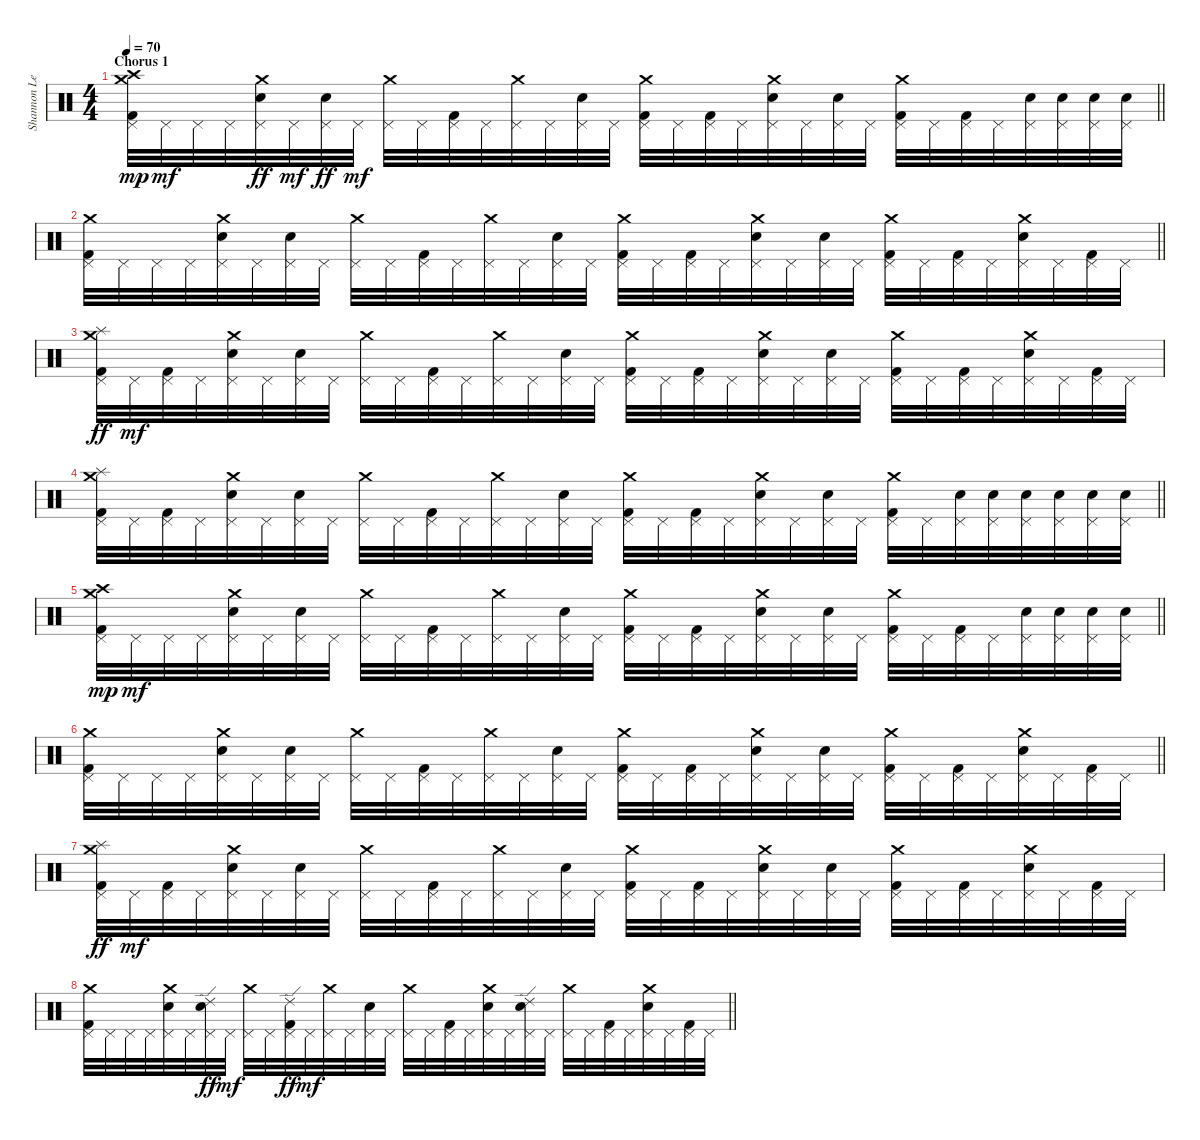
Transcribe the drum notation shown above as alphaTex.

\track ("Shannon Leto - Drums" "Shannon Le") {instrument percussion}
\staff {score}
\articulation defaults
\ts (4 4)
\section ("" "Chorus 1")
\tempo 70
\clef neutral
\barLineRight lightlight
\ks c
("Crash medium (hit)" "Pedal Hi-Hat (hit)" "Crash high (hit)" "Kick (hit) 2").32{dy mp} "Pedal Hi-Hat (hit)".32{dy mf} "Pedal Hi-Hat (hit)".32 "Pedal Hi-Hat (hit)".32 ("Crash medium (hit)" "Pedal Hi-Hat (hit)" "Electric Snare (hit)").32{dy ff} "Pedal Hi-Hat (hit)".32{dy mf} ("Pedal Hi-Hat (hit)" "Electric Snare (hit)").32{dy ff} "Pedal Hi-Hat (hit)".32{dy mf} ("Crash medium (hit)" "Pedal Hi-Hat (hit)").32 "Pedal Hi-Hat (hit)".32 ("Pedal Hi-Hat (hit)" "Kick (hit) 2").32 "Pedal Hi-Hat (hit)".32 ("Crash medium (hit)" "Pedal Hi-Hat (hit)").32 "Pedal Hi-Hat (hit)".32 ("Pedal Hi-Hat (hit)" "Electric Snare (hit)").32 "Pedal Hi-Hat (hit)".32 ("Crash medium (hit)" "Pedal Hi-Hat (hit)" "Kick (hit) 2").32 "Pedal Hi-Hat (hit)".32 ("Pedal Hi-Hat (hit)" "Kick (hit) 2").32 "Pedal Hi-Hat (hit)".32 ("Crash medium (hit)" "Pedal Hi-Hat (hit)" "Electric Snare (hit)").32 "Pedal Hi-Hat (hit)".32 ("Pedal Hi-Hat (hit)" "Electric Snare (hit)").32 "Pedal Hi-Hat (hit)".32 ("Crash medium (hit)" "Pedal Hi-Hat (hit)" "Kick (hit) 2").32 "Pedal Hi-Hat (hit)".32 ("Pedal Hi-Hat (hit)" "Kick (hit) 2").32 "Pedal Hi-Hat (hit)".32 ("Pedal Hi-Hat (hit)" "Electric Snare (hit)").32 ("Pedal Hi-Hat (hit)" "Electric Snare (hit)").32 ("Pedal Hi-Hat (hit)" "Electric Snare (hit)").32 ("Pedal Hi-Hat (hit)" "Electric Snare (hit)").32 |
\barLineRight lightlight
("Crash medium (hit)" "Pedal Hi-Hat (hit)" "Kick (hit) 2").32 "Pedal Hi-Hat (hit)".32 "Pedal Hi-Hat (hit)".32 "Pedal Hi-Hat (hit)".32 ("Crash medium (hit)" "Pedal Hi-Hat (hit)" "Electric Snare (hit)").32 "Pedal Hi-Hat (hit)".32 ("Pedal Hi-Hat (hit)" "Electric Snare (hit)").32 "Pedal Hi-Hat (hit)".32 ("Crash medium (hit)" "Pedal Hi-Hat (hit)").32 "Pedal Hi-Hat (hit)".32 ("Pedal Hi-Hat (hit)" "Kick (hit) 2").32 "Pedal Hi-Hat (hit)".32 ("Crash medium (hit)" "Pedal Hi-Hat (hit)").32 "Pedal Hi-Hat (hit)".32 ("Pedal Hi-Hat (hit)" "Electric Snare (hit)").32 "Pedal Hi-Hat (hit)".32 ("Crash medium (hit)" "Pedal Hi-Hat (hit)" "Kick (hit) 2").32 "Pedal Hi-Hat (hit)".32 ("Pedal Hi-Hat (hit)" "Kick (hit) 2").32 "Pedal Hi-Hat (hit)".32 ("Crash medium (hit)" "Pedal Hi-Hat (hit)" "Electric Snare (hit)").32 "Pedal Hi-Hat (hit)".32 ("Pedal Hi-Hat (hit)" "Electric Snare (hit)").32 "Pedal Hi-Hat (hit)".32 ("Crash medium (hit)" "Pedal Hi-Hat (hit)" "Kick (hit) 2").32 "Pedal Hi-Hat (hit)".32 ("Pedal Hi-Hat (hit)" "Kick (hit) 2").32 "Pedal Hi-Hat (hit)".32 ("Crash medium (hit)" "Pedal Hi-Hat (hit)" "Electric Snare (hit)").32 "Pedal Hi-Hat (hit)".32 ("Pedal Hi-Hat (hit)" "Kick (hit) 2").32 "Pedal Hi-Hat (hit)".32 |
("Crash medium (hit)" "Pedal Hi-Hat (hit)" "Splash (hit)" "Kick (hit) 2").32{dy ff} "Pedal Hi-Hat (hit)".32{dy mf} ("Pedal Hi-Hat (hit)" "Kick (hit) 2").32 "Pedal Hi-Hat (hit)".32 ("Crash medium (hit)" "Pedal Hi-Hat (hit)" "Electric Snare (hit)").32 "Pedal Hi-Hat (hit)".32 ("Pedal Hi-Hat (hit)" "Electric Snare (hit)").32 "Pedal Hi-Hat (hit)".32 ("Crash medium (hit)" "Pedal Hi-Hat (hit)").32 "Pedal Hi-Hat (hit)".32 ("Pedal Hi-Hat (hit)" "Kick (hit) 2").32 "Pedal Hi-Hat (hit)".32 ("Crash medium (hit)" "Pedal Hi-Hat (hit)").32 "Pedal Hi-Hat (hit)".32 ("Pedal Hi-Hat (hit)" "Electric Snare (hit)").32 "Pedal Hi-Hat (hit)".32 ("Crash medium (hit)" "Pedal Hi-Hat (hit)" "Kick (hit) 2").32 "Pedal Hi-Hat (hit)".32 ("Pedal Hi-Hat (hit)" "Kick (hit) 2").32 "Pedal Hi-Hat (hit)".32 ("Crash medium (hit)" "Pedal Hi-Hat (hit)" "Electric Snare (hit)").32 "Pedal Hi-Hat (hit)".32 ("Pedal Hi-Hat (hit)" "Electric Snare (hit)").32 "Pedal Hi-Hat (hit)".32 ("Crash medium (hit)" "Pedal Hi-Hat (hit)" "Kick (hit) 2").32 "Pedal Hi-Hat (hit)".32 ("Pedal Hi-Hat (hit)" "Kick (hit) 2").32 "Pedal Hi-Hat (hit)".32 ("Crash medium (hit)" "Pedal Hi-Hat (hit)" "Electric Snare (hit)").32 "Pedal Hi-Hat (hit)".32 ("Pedal Hi-Hat (hit)" "Kick (hit) 2").32 "Pedal Hi-Hat (hit)".32 |
\barLineRight lightlight
("Crash medium (hit)" "Pedal Hi-Hat (hit)" "Splash (hit)" "Kick (hit) 2").32 "Pedal Hi-Hat (hit)".32 ("Pedal Hi-Hat (hit)" "Kick (hit) 2").32 "Pedal Hi-Hat (hit)".32 ("Crash medium (hit)" "Pedal Hi-Hat (hit)" "Electric Snare (hit)").32 "Pedal Hi-Hat (hit)".32 ("Pedal Hi-Hat (hit)" "Electric Snare (hit)").32 "Pedal Hi-Hat (hit)".32 ("Crash medium (hit)" "Pedal Hi-Hat (hit)").32 "Pedal Hi-Hat (hit)".32 ("Pedal Hi-Hat (hit)" "Kick (hit) 2").32 "Pedal Hi-Hat (hit)".32 ("Crash medium (hit)" "Pedal Hi-Hat (hit)").32 "Pedal Hi-Hat (hit)".32 ("Pedal Hi-Hat (hit)" "Electric Snare (hit)").32 "Pedal Hi-Hat (hit)".32 ("Crash medium (hit)" "Pedal Hi-Hat (hit)" "Kick (hit) 2").32 "Pedal Hi-Hat (hit)".32 ("Pedal Hi-Hat (hit)" "Kick (hit) 2").32 "Pedal Hi-Hat (hit)".32 ("Crash medium (hit)" "Pedal Hi-Hat (hit)" "Electric Snare (hit)").32 "Pedal Hi-Hat (hit)".32 ("Pedal Hi-Hat (hit)" "Electric Snare (hit)").32 "Pedal Hi-Hat (hit)".32 ("Crash medium (hit)" "Pedal Hi-Hat (hit)" "Kick (hit) 2").32 "Pedal Hi-Hat (hit)".32 ("Pedal Hi-Hat (hit)" "Electric Snare (hit)").32 ("Pedal Hi-Hat (hit)" "Electric Snare (hit)").32 ("Pedal Hi-Hat (hit)" "Electric Snare (hit)").32 ("Pedal Hi-Hat (hit)" "Electric Snare (hit)").32 ("Pedal Hi-Hat (hit)" "Electric Snare (hit)").32 ("Pedal Hi-Hat (hit)" "Electric Snare (hit)").32 |
\barLineRight lightlight
("Crash medium (hit)" "Pedal Hi-Hat (hit)" "Crash high (hit)" "Kick (hit) 2").32{dy mp} "Pedal Hi-Hat (hit)".32{dy mf} "Pedal Hi-Hat (hit)".32 "Pedal Hi-Hat (hit)".32 ("Crash medium (hit)" "Pedal Hi-Hat (hit)" "Electric Snare (hit)").32 "Pedal Hi-Hat (hit)".32 ("Pedal Hi-Hat (hit)" "Electric Snare (hit)").32 "Pedal Hi-Hat (hit)".32 ("Crash medium (hit)" "Pedal Hi-Hat (hit)").32 "Pedal Hi-Hat (hit)".32 ("Pedal Hi-Hat (hit)" "Kick (hit) 2").32 "Pedal Hi-Hat (hit)".32 ("Crash medium (hit)" "Pedal Hi-Hat (hit)").32 "Pedal Hi-Hat (hit)".32 ("Pedal Hi-Hat (hit)" "Electric Snare (hit)").32 "Pedal Hi-Hat (hit)".32 ("Crash medium (hit)" "Pedal Hi-Hat (hit)" "Kick (hit) 2").32 "Pedal Hi-Hat (hit)".32 ("Pedal Hi-Hat (hit)" "Kick (hit) 2").32 "Pedal Hi-Hat (hit)".32 ("Crash medium (hit)" "Pedal Hi-Hat (hit)" "Electric Snare (hit)").32 "Pedal Hi-Hat (hit)".32 ("Pedal Hi-Hat (hit)" "Electric Snare (hit)").32 "Pedal Hi-Hat (hit)".32 ("Crash medium (hit)" "Pedal Hi-Hat (hit)" "Kick (hit) 2").32 "Pedal Hi-Hat (hit)".32 ("Pedal Hi-Hat (hit)" "Kick (hit) 2").32 "Pedal Hi-Hat (hit)".32 ("Pedal Hi-Hat (hit)" "Electric Snare (hit)").32 ("Pedal Hi-Hat (hit)" "Electric Snare (hit)").32 ("Pedal Hi-Hat (hit)" "Electric Snare (hit)").32 ("Pedal Hi-Hat (hit)" "Electric Snare (hit)").32 |
\barLineRight lightlight
("Crash medium (hit)" "Pedal Hi-Hat (hit)" "Kick (hit) 2").32 "Pedal Hi-Hat (hit)".32 "Pedal Hi-Hat (hit)".32 "Pedal Hi-Hat (hit)".32 ("Crash medium (hit)" "Pedal Hi-Hat (hit)" "Electric Snare (hit)").32 "Pedal Hi-Hat (hit)".32 ("Pedal Hi-Hat (hit)" "Electric Snare (hit)").32 "Pedal Hi-Hat (hit)".32 ("Crash medium (hit)" "Pedal Hi-Hat (hit)").32 "Pedal Hi-Hat (hit)".32 ("Pedal Hi-Hat (hit)" "Kick (hit) 2").32 "Pedal Hi-Hat (hit)".32 ("Crash medium (hit)" "Pedal Hi-Hat (hit)").32 "Pedal Hi-Hat (hit)".32 ("Pedal Hi-Hat (hit)" "Electric Snare (hit)").32 "Pedal Hi-Hat (hit)".32 ("Crash medium (hit)" "Pedal Hi-Hat (hit)" "Kick (hit) 2").32 "Pedal Hi-Hat (hit)".32 ("Pedal Hi-Hat (hit)" "Kick (hit) 2").32 "Pedal Hi-Hat (hit)".32 ("Crash medium (hit)" "Pedal Hi-Hat (hit)" "Electric Snare (hit)").32 "Pedal Hi-Hat (hit)".32 ("Pedal Hi-Hat (hit)" "Electric Snare (hit)").32 "Pedal Hi-Hat (hit)".32 ("Crash medium (hit)" "Pedal Hi-Hat (hit)" "Kick (hit) 2").32 "Pedal Hi-Hat (hit)".32 ("Pedal Hi-Hat (hit)" "Kick (hit) 2").32 "Pedal Hi-Hat (hit)".32 ("Crash medium (hit)" "Pedal Hi-Hat (hit)" "Electric Snare (hit)").32 "Pedal Hi-Hat (hit)".32 ("Pedal Hi-Hat (hit)" "Kick (hit) 2").32 "Pedal Hi-Hat (hit)".32 |
("Crash medium (hit)" "Pedal Hi-Hat (hit)" "Splash (hit)" "Kick (hit) 2").32{dy ff} "Pedal Hi-Hat (hit)".32{dy mf} ("Pedal Hi-Hat (hit)" "Kick (hit) 2").32 "Pedal Hi-Hat (hit)".32 ("Crash medium (hit)" "Pedal Hi-Hat (hit)" "Electric Snare (hit)").32 "Pedal Hi-Hat (hit)".32 ("Pedal Hi-Hat (hit)" "Electric Snare (hit)").32 "Pedal Hi-Hat (hit)".32 ("Crash medium (hit)" "Pedal Hi-Hat (hit)").32 "Pedal Hi-Hat (hit)".32 ("Pedal Hi-Hat (hit)" "Kick (hit) 2").32 "Pedal Hi-Hat (hit)".32 ("Crash medium (hit)" "Pedal Hi-Hat (hit)").32 "Pedal Hi-Hat (hit)".32 ("Pedal Hi-Hat (hit)" "Electric Snare (hit)").32 "Pedal Hi-Hat (hit)".32 ("Crash medium (hit)" "Pedal Hi-Hat (hit)" "Kick (hit) 2").32 "Pedal Hi-Hat (hit)".32 ("Pedal Hi-Hat (hit)" "Kick (hit) 2").32 "Pedal Hi-Hat (hit)".32 ("Crash medium (hit)" "Pedal Hi-Hat (hit)" "Electric Snare (hit)").32 "Pedal Hi-Hat (hit)".32 ("Pedal Hi-Hat (hit)" "Electric Snare (hit)").32 "Pedal Hi-Hat (hit)".32 ("Crash medium (hit)" "Pedal Hi-Hat (hit)" "Kick (hit) 2").32 "Pedal Hi-Hat (hit)".32 ("Pedal Hi-Hat (hit)" "Kick (hit) 2").32 "Pedal Hi-Hat (hit)".32 ("Crash medium (hit)" "Pedal Hi-Hat (hit)" "Electric Snare (hit)").32 "Pedal Hi-Hat (hit)".32 ("Pedal Hi-Hat (hit)" "Kick (hit) 2").32 "Pedal Hi-Hat (hit)".32 |
\barLineRight lightlight
("Crash medium (hit)" "Pedal Hi-Hat (hit)" "Kick (hit) 2").32 "Pedal Hi-Hat (hit)".32 "Pedal Hi-Hat (hit)".32 "Pedal Hi-Hat (hit)".32 ("Crash medium (hit)" "Pedal Hi-Hat (hit)" "Electric Snare (hit)").32 "Pedal Hi-Hat (hit)".32 ("Pedal Hi-Hat (hit)" "Electric Snare (hit)" "Ride (edge) 2").32{dy ff} "Pedal Hi-Hat (hit)".32{dy mf} ("Crash medium (hit)" "Pedal Hi-Hat (hit)").32 "Pedal Hi-Hat (hit)".32 ("Pedal Hi-Hat (hit)" "Ride (edge) 2" "Kick (hit) 2").32{dy ff} "Pedal Hi-Hat (hit)".32{dy mf} ("Crash medium (hit)" "Pedal Hi-Hat (hit)").32 "Pedal Hi-Hat (hit)".32 ("Pedal Hi-Hat (hit)" "Electric Snare (hit)").32 "Pedal Hi-Hat (hit)".32 ("Crash medium (hit)" "Pedal Hi-Hat (hit)").32 "Pedal Hi-Hat (hit)".32 ("Pedal Hi-Hat (hit)" "Kick (hit) 2").32 "Pedal Hi-Hat (hit)".32 ("Crash medium (hit)" "Pedal Hi-Hat (hit)" "Electric Snare (hit)").32 "Pedal Hi-Hat (hit)".32 ("Pedal Hi-Hat (hit)" "Electric Snare (hit)" "Ride (edge) 2").32 "Pedal Hi-Hat (hit)".32 ("Crash medium (hit)" "Pedal Hi-Hat (hit)").32 "Pedal Hi-Hat (hit)".32 ("Pedal Hi-Hat (hit)" "Kick (hit) 2").32 "Pedal Hi-Hat (hit)".32 ("Crash medium (hit)" "Pedal Hi-Hat (hit)" "Electric Snare (hit)").32 "Pedal Hi-Hat (hit)".32 ("Pedal Hi-Hat (hit)" "Kick (hit) 2").32 "Pedal Hi-Hat (hit)".32
